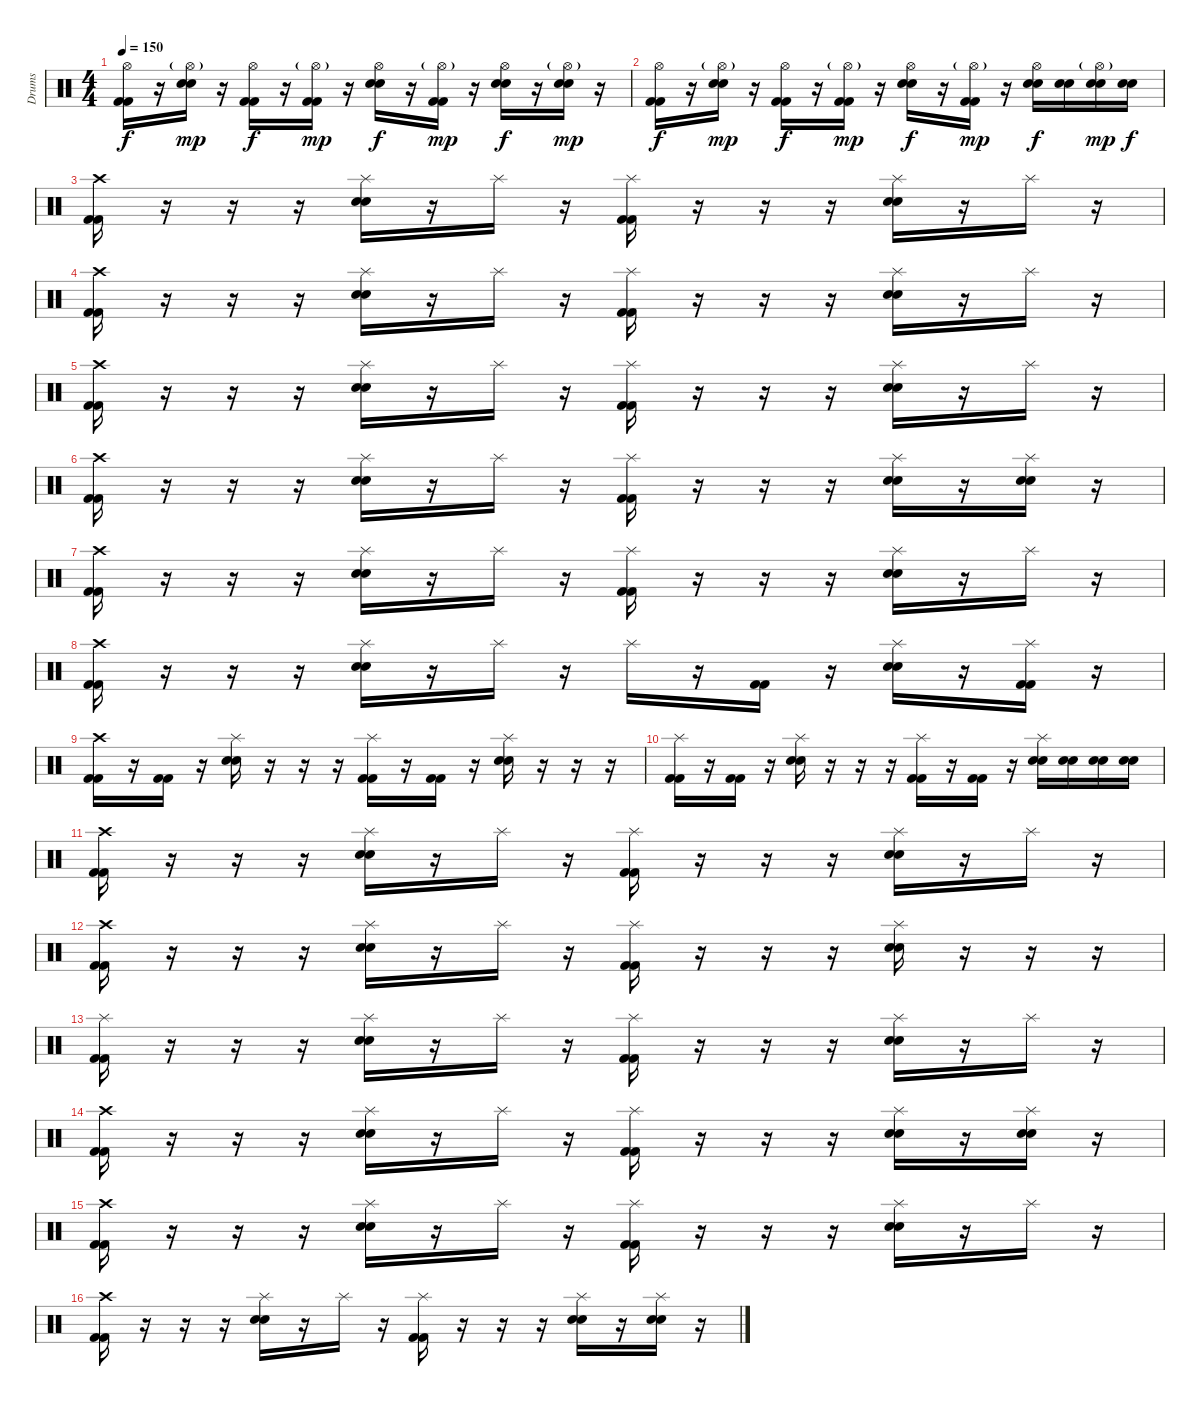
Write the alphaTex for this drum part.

\track ("Drums" "Drums") {instrument percussion}
\staff {score}
\articulation defaults
\ts (4 4)
\tempo 150
\clef neutral
\ks c
("Hi-Hat (open)" "Kick (hit) 2" "Kick (hit) 2").16{dy f} r.16 ("Hi-Hat (open)"{g} "Electric Snare (hit)" "Electric Snare (hit)").16{dy mp} r.16 ("Hi-Hat (open)" "Kick (hit) 2" "Kick (hit) 2").16{dy f} r.16 ("Hi-Hat (open)"{g} "Kick (hit) 2" "Kick (hit) 2").16{dy mp} r.16 ("Hi-Hat (open)" "Electric Snare (hit)" "Electric Snare (hit)").16{dy f} r.16 ("Hi-Hat (open)"{g} "Kick (hit) 2" "Kick (hit) 2").16{dy mp} r.16 ("Hi-Hat (open)" "Electric Snare (hit)" "Electric Snare (hit)").16{dy f} r.16 ("Hi-Hat (open)"{g} "Electric Snare (hit)" "Electric Snare (hit)").16{dy mp} r.16 |
("Hi-Hat (open)" "Kick (hit) 2" "Kick (hit) 2").16{dy f} r.16 ("Hi-Hat (open)"{g} "Electric Snare (hit)" "Electric Snare (hit)").16{dy mp} r.16 ("Hi-Hat (open)" "Kick (hit) 2" "Kick (hit) 2").16{dy f} r.16 ("Hi-Hat (open)"{g} "Kick (hit) 2" "Kick (hit) 2").16{dy mp} r.16 ("Hi-Hat (open)" "Electric Snare (hit)" "Electric Snare (hit)").16{dy f} r.16 ("Hi-Hat (open)"{g} "Kick (hit) 2" "Kick (hit) 2").16{dy mp} r.16 ("Hi-Hat (open)" "Electric Snare (hit)" "Electric Snare (hit)").16{dy f} ("Electric Snare (hit)" "Electric Snare (hit)").16 ("Hi-Hat (open)"{g} "Electric Snare (hit)" "Electric Snare (hit)").16{dy mp} ("Electric Snare (hit)" "Electric Snare (hit)").16{dy f} |
("Crash high (hit)" "Kick (hit) 2" "Kick (hit) 2").16 r.16 r.16 r.16 ("Splash (hit)" "Electric Snare (hit)" "Electric Snare (hit)").16 r.16 "Splash (hit)".16 r.16 ("Splash (hit)" "Kick (hit) 2" "Kick (hit) 2").16 r.16 r.16 r.16 ("Splash (hit)" "Electric Snare (hit)" "Electric Snare (hit)").16 r.16 "Splash (hit)".16 r.16 |
("Crash high (hit)" "Kick (hit) 2" "Kick (hit) 2").16 r.16 r.16 r.16 ("Splash (hit)" "Electric Snare (hit)" "Electric Snare (hit)").16 r.16 "Splash (hit)".16 r.16 ("Splash (hit)" "Kick (hit) 2" "Kick (hit) 2").16 r.16 r.16 r.16 ("Splash (hit)" "Electric Snare (hit)" "Electric Snare (hit)").16 r.16 "Splash (hit)".16 r.16 |
("Crash high (hit)" "Kick (hit) 2" "Kick (hit) 2").16 r.16 r.16 r.16 ("Splash (hit)" "Electric Snare (hit)" "Electric Snare (hit)").16 r.16 "Splash (hit)".16 r.16 ("Splash (hit)" "Kick (hit) 2" "Kick (hit) 2").16 r.16 r.16 r.16 ("Splash (hit)" "Electric Snare (hit)" "Electric Snare (hit)").16 r.16 "Splash (hit)".16 r.16 |
("Crash high (hit)" "Kick (hit) 2" "Kick (hit) 2").16 r.16 r.16 r.16 ("Splash (hit)" "Electric Snare (hit)" "Electric Snare (hit)").16 r.16 "Splash (hit)".16 r.16 ("Splash (hit)" "Kick (hit) 2" "Kick (hit) 2").16 r.16 r.16 r.16 ("Splash (hit)" "Electric Snare (hit)" "Electric Snare (hit)").16 r.16 ("Splash (hit)" "Electric Snare (hit)" "Electric Snare (hit)").16 r.16 |
("Crash high (hit)" "Kick (hit) 2" "Kick (hit) 2").16 r.16 r.16 r.16 ("Splash (hit)" "Electric Snare (hit)" "Electric Snare (hit)").16 r.16 "Splash (hit)".16 r.16 ("Splash (hit)" "Kick (hit) 2" "Kick (hit) 2").16 r.16 r.16 r.16 ("Splash (hit)" "Electric Snare (hit)" "Electric Snare (hit)").16 r.16 "Splash (hit)".16 r.16 |
("Crash high (hit)" "Kick (hit) 2" "Kick (hit) 2").16 r.16 r.16 r.16 ("Splash (hit)" "Electric Snare (hit)" "Electric Snare (hit)").16 r.16 "Splash (hit)".16 r.16 "Splash (hit)".16 r.16 ("Kick (hit) 2" "Kick (hit) 2").16 r.16 ("Splash (hit)" "Electric Snare (hit)" "Electric Snare (hit)").16 r.16 ("Splash (hit)" "Kick (hit) 2" "Kick (hit) 2").16 r.16 |
("Crash high (hit)" "Kick (hit) 2" "Kick (hit) 2").16 r.16 ("Kick (hit) 2" "Kick (hit) 2").16 r.16 ("Splash (hit)" "Electric Snare (hit)" "Electric Snare (hit)").16 r.16 r.16 r.16 ("Splash (hit)" "Kick (hit) 2" "Kick (hit) 2").16 r.16 ("Kick (hit) 2" "Kick (hit) 2").16 r.16 ("Splash (hit)" "Electric Snare (hit)" "Electric Snare (hit)").16 r.16 r.16 r.16 |
("Splash (hit)" "Kick (hit) 2" "Kick (hit) 2").16 r.16 ("Kick (hit) 2" "Kick (hit) 2").16 r.16 ("Splash (hit)" "Electric Snare (hit)" "Electric Snare (hit)").16 r.16 r.16 r.16 ("Splash (hit)" "Kick (hit) 2" "Kick (hit) 2").16 r.16 ("Kick (hit) 2" "Kick (hit) 2").16 r.16 ("Splash (hit)" "Electric Snare (hit)" "Electric Snare (hit)").16 ("Electric Snare (hit)" "Electric Snare (hit)").16 ("Electric Snare (hit)" "Electric Snare (hit)").16 ("Electric Snare (hit)" "Electric Snare (hit)").16 |
("Crash high (hit)" "Kick (hit) 2" "Kick (hit) 2").16 r.16 r.16 r.16 ("Splash (hit)" "Electric Snare (hit)" "Electric Snare (hit)").16 r.16 "Splash (hit)".16 r.16 ("Splash (hit)" "Kick (hit) 2" "Kick (hit) 2").16 r.16 r.16 r.16 ("Splash (hit)" "Electric Snare (hit)" "Electric Snare (hit)").16 r.16 "Splash (hit)".16 r.16 |
("Crash high (hit)" "Kick (hit) 2" "Kick (hit) 2").16 r.16 r.16 r.16 ("Splash (hit)" "Electric Snare (hit)" "Electric Snare (hit)").16 r.16 "Splash (hit)".16 r.16 ("Splash (hit)" "Kick (hit) 2" "Kick (hit) 2").16 r.16 r.16 r.16 ("Splash (hit)" "Electric Snare (hit)" "Electric Snare (hit)").16 r.16 r.16 r.16 |
("Splash (hit)" "Kick (hit) 2" "Kick (hit) 2").16 r.16 r.16 r.16 ("Splash (hit)" "Electric Snare (hit)" "Electric Snare (hit)").16 r.16 "Splash (hit)".16 r.16 ("Splash (hit)" "Kick (hit) 2" "Kick (hit) 2").16 r.16 r.16 r.16 ("Splash (hit)" "Electric Snare (hit)" "Electric Snare (hit)").16 r.16 "Splash (hit)".16 r.16 |
("Crash high (hit)" "Kick (hit) 2" "Kick (hit) 2").16 r.16 r.16 r.16 ("Splash (hit)" "Electric Snare (hit)" "Electric Snare (hit)").16 r.16 "Splash (hit)".16 r.16 ("Splash (hit)" "Kick (hit) 2" "Kick (hit) 2").16 r.16 r.16 r.16 ("Splash (hit)" "Electric Snare (hit)" "Electric Snare (hit)").16 r.16 ("Splash (hit)" "Electric Snare (hit)" "Electric Snare (hit)").16 r.16 |
("Crash high (hit)" "Kick (hit) 2" "Kick (hit) 2").16 r.16 r.16 r.16 ("Splash (hit)" "Electric Snare (hit)" "Electric Snare (hit)").16 r.16 "Splash (hit)".16 r.16 ("Splash (hit)" "Kick (hit) 2" "Kick (hit) 2").16 r.16 r.16 r.16 ("Splash (hit)" "Electric Snare (hit)" "Electric Snare (hit)").16 r.16 "Splash (hit)".16 r.16 |
("Crash high (hit)" "Kick (hit) 2" "Kick (hit) 2").16 r.16 r.16 r.16 ("Splash (hit)" "Electric Snare (hit)" "Electric Snare (hit)").16 r.16 "Splash (hit)".16 r.16 ("Splash (hit)" "Kick (hit) 2" "Kick (hit) 2").16 r.16 r.16 r.16 ("Splash (hit)" "Electric Snare (hit)" "Electric Snare (hit)").16 r.16 ("Splash (hit)" "Electric Snare (hit)" "Electric Snare (hit)").16 r.16
